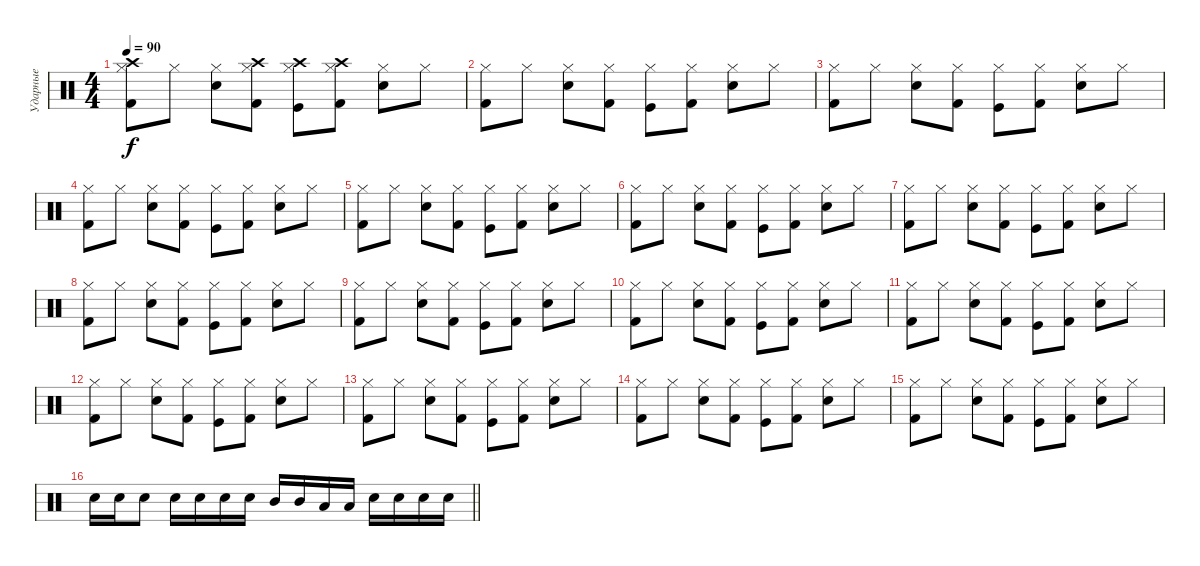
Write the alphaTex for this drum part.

\track ("Ударные" "Ударные") {instrument percussion}
\staff {score}
\articulation defaults
\ts (4 4)
\tempo 90
\clef neutral
\ks c
("Hi-Hat (closed)" "Crash high (hit)" "Kick (hit) 2").8{dy f} "Hi-Hat (closed)".8 ("Hi-Hat (closed)" "Snare (hit) 2").8 ("Hi-Hat (closed)" "Crash high (hit)" "Kick (hit) 2").8 ("Hi-Hat (closed)" "Crash high (hit)" "Kick (hit)").8 ("Hi-Hat (closed)" "Crash high (hit)" "Kick (hit) 2").8 ("Hi-Hat (closed)" "Snare (hit) 2").8 "Hi-Hat (closed)".8 |
("Hi-Hat (closed)" "Kick (hit) 2").8 "Hi-Hat (closed)".8 ("Hi-Hat (closed)" "Snare (hit) 2").8 ("Hi-Hat (closed)" "Kick (hit) 2").8 ("Hi-Hat (closed)" "Kick (hit)").8 ("Hi-Hat (closed)" "Kick (hit) 2").8 ("Hi-Hat (closed)" "Snare (hit) 2").8 "Hi-Hat (closed)".8 |
("Hi-Hat (closed)" "Kick (hit) 2").8 "Hi-Hat (closed)".8 ("Hi-Hat (closed)" "Snare (hit) 2").8 ("Hi-Hat (closed)" "Kick (hit) 2").8 ("Hi-Hat (closed)" "Kick (hit)").8 ("Hi-Hat (closed)" "Kick (hit) 2").8 ("Hi-Hat (closed)" "Snare (hit) 2").8 "Hi-Hat (closed)".8 |
("Hi-Hat (closed)" "Kick (hit) 2").8 "Hi-Hat (closed)".8 ("Hi-Hat (closed)" "Snare (hit) 2").8 ("Hi-Hat (closed)" "Kick (hit) 2").8 ("Hi-Hat (closed)" "Kick (hit)").8 ("Hi-Hat (closed)" "Kick (hit) 2").8 ("Hi-Hat (closed)" "Snare (hit) 2").8 "Hi-Hat (closed)".8 |
("Hi-Hat (closed)" "Kick (hit) 2").8 "Hi-Hat (closed)".8 ("Hi-Hat (closed)" "Snare (hit) 2").8 ("Hi-Hat (closed)" "Kick (hit) 2").8 ("Hi-Hat (closed)" "Kick (hit)").8 ("Hi-Hat (closed)" "Kick (hit) 2").8 ("Hi-Hat (closed)" "Snare (hit) 2").8 "Hi-Hat (closed)".8 |
("Hi-Hat (closed)" "Kick (hit) 2").8 "Hi-Hat (closed)".8 ("Hi-Hat (closed)" "Snare (hit) 2").8 ("Hi-Hat (closed)" "Kick (hit) 2").8 ("Hi-Hat (closed)" "Kick (hit)").8 ("Hi-Hat (closed)" "Kick (hit) 2").8 ("Hi-Hat (closed)" "Snare (hit) 2").8 "Hi-Hat (closed)".8 |
("Hi-Hat (closed)" "Kick (hit) 2").8 "Hi-Hat (closed)".8 ("Hi-Hat (closed)" "Snare (hit) 2").8 ("Hi-Hat (closed)" "Kick (hit) 2").8 ("Hi-Hat (closed)" "Kick (hit)").8 ("Hi-Hat (closed)" "Kick (hit) 2").8 ("Hi-Hat (closed)" "Snare (hit) 2").8 "Hi-Hat (closed)".8 |
("Hi-Hat (closed)" "Kick (hit) 2").8 "Hi-Hat (closed)".8 ("Hi-Hat (closed)" "Snare (hit) 2").8 ("Hi-Hat (closed)" "Kick (hit) 2").8 ("Hi-Hat (closed)" "Kick (hit)").8 ("Hi-Hat (closed)" "Kick (hit) 2").8 ("Hi-Hat (closed)" "Snare (hit) 2").8 "Hi-Hat (closed)".8 |
("Hi-Hat (closed)" "Kick (hit) 2").8 "Hi-Hat (closed)".8 ("Hi-Hat (closed)" "Snare (hit) 2").8 ("Hi-Hat (closed)" "Kick (hit) 2").8 ("Hi-Hat (closed)" "Kick (hit)").8 ("Hi-Hat (closed)" "Kick (hit) 2").8 ("Hi-Hat (closed)" "Snare (hit) 2").8 "Hi-Hat (closed)".8 |
("Hi-Hat (closed)" "Kick (hit) 2").8 "Hi-Hat (closed)".8 ("Hi-Hat (closed)" "Snare (hit) 2").8 ("Hi-Hat (closed)" "Kick (hit) 2").8 ("Hi-Hat (closed)" "Kick (hit)").8 ("Hi-Hat (closed)" "Kick (hit) 2").8 ("Hi-Hat (closed)" "Snare (hit) 2").8 "Hi-Hat (closed)".8 |
("Hi-Hat (closed)" "Kick (hit) 2").8 "Hi-Hat (closed)".8 ("Hi-Hat (closed)" "Snare (hit) 2").8 ("Hi-Hat (closed)" "Kick (hit) 2").8 ("Hi-Hat (closed)" "Kick (hit)").8 ("Hi-Hat (closed)" "Kick (hit) 2").8 ("Hi-Hat (closed)" "Snare (hit) 2").8 "Hi-Hat (closed)".8 |
("Hi-Hat (closed)" "Kick (hit) 2").8 "Hi-Hat (closed)".8 ("Hi-Hat (closed)" "Snare (hit) 2").8 ("Hi-Hat (closed)" "Kick (hit) 2").8 ("Hi-Hat (closed)" "Kick (hit)").8 ("Hi-Hat (closed)" "Kick (hit) 2").8 ("Hi-Hat (closed)" "Snare (hit) 2").8 "Hi-Hat (closed)".8 |
("Hi-Hat (closed)" "Kick (hit) 2").8 "Hi-Hat (closed)".8 ("Hi-Hat (closed)" "Snare (hit) 2").8 ("Hi-Hat (closed)" "Kick (hit) 2").8 ("Hi-Hat (closed)" "Kick (hit)").8 ("Hi-Hat (closed)" "Kick (hit) 2").8 ("Hi-Hat (closed)" "Snare (hit) 2").8 "Hi-Hat (closed)".8 |
("Hi-Hat (closed)" "Kick (hit) 2").8 "Hi-Hat (closed)".8 ("Hi-Hat (closed)" "Snare (hit) 2").8 ("Hi-Hat (closed)" "Kick (hit) 2").8 ("Hi-Hat (closed)" "Kick (hit)").8 ("Hi-Hat (closed)" "Kick (hit) 2").8 ("Hi-Hat (closed)" "Snare (hit) 2").8 "Hi-Hat (closed)".8 |
("Hi-Hat (closed)" "Kick (hit) 2").8 "Hi-Hat (closed)".8 ("Hi-Hat (closed)" "Snare (hit) 2").8 ("Hi-Hat (closed)" "Kick (hit) 2").8 ("Hi-Hat (closed)" "Kick (hit)").8 ("Hi-Hat (closed)" "Kick (hit) 2").8 ("Hi-Hat (closed)" "Snare (hit) 2").8 "Hi-Hat (closed)".8 |
\barLineRight lightlight "Snare (hit) 2".16 "Electric Snare (hit)".16 "Snare (hit) 2".8 "Snare (hit) 2".16 "Snare (hit) 2".16 "Snare (hit) 2".16 "Snare (hit) 2".16 "Mid Tom (hit)".16 "Mid Tom (hit)".16 "Low Tom (hit)".16 "Low Tom (hit)".16 "Snare (hit) 2".16 "Snare (hit) 2".16 "Electric Snare (hit)".16 "Electric Snare (hit)".16
